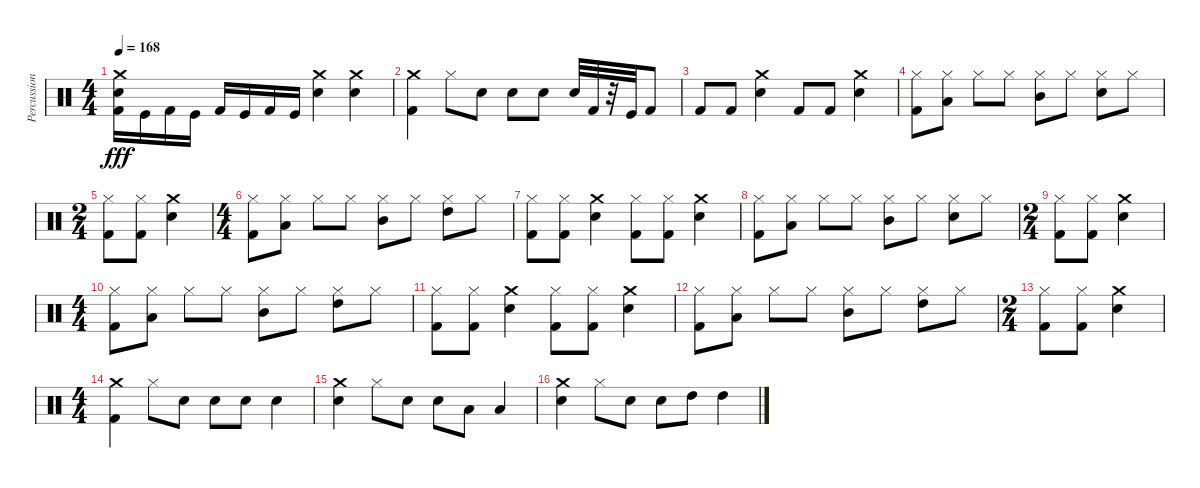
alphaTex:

\track ("Percussion" "Percussion") {instrument percussion}
\staff {score}
\articulation defaults
\ts (4 4)
\tempo 168
\clef neutral
\ks c
("Kick (hit) 2" "Snare (hit) 2" "Crash medium (hit)").16{dy fff} "Kick (hit)".16 "Kick (hit) 2".16 "Kick (hit)".16 "Kick (hit) 2".16 "Kick (hit)".16 "Kick (hit) 2".16 "Kick (hit)".16 ("Crash medium (hit)" "Snare (hit) 2").4 ("Snare (hit) 2" "Crash medium (hit)").4 |
("Kick (hit) 2" "Crash medium (hit)").4 "Hi-Hat (closed)".8 "Snare (hit) 2".8 "Snare (hit) 2".8 "Snare (hit) 2".8 "Snare (hit) 2".32 "Kick (hit) 2".32 r.32 "Kick (hit)".32 "Kick (hit) 2".8 |
"Kick (hit) 2".8 "Kick (hit) 2".8 ("Snare (hit) 2" "Crash medium (hit)").4 "Kick (hit) 2".8 "Kick (hit) 2".8 ("Crash medium (hit)" "Snare (hit) 2").4 |
("Hi-Hat (closed)" "Kick (hit) 2").8 ("Low Tom (hit)" "Hi-Hat (closed)").8 "Hi-Hat (closed)".8 "Hi-Hat (closed)".8 ("Mid Tom (hit)" "Hi-Hat (closed)").8 "Hi-Hat (closed)".8 ("Snare (hit) 2" "Hi-Hat (closed)").8 "Hi-Hat (closed)".8 |
\ts (2 4)
("Kick (hit) 2" "Hi-Hat (closed)").8 ("Kick (hit) 2" "Hi-Hat (closed)").8 ("Snare (hit) 2" "Crash medium (hit)").4 |
\ts (4 4)
("Hi-Hat (closed)" "Kick (hit) 2").8 ("Low Tom (hit)" "Hi-Hat (closed)").8 "Hi-Hat (closed)".8 "Hi-Hat (closed)".8 ("Mid Tom (hit)" "Hi-Hat (closed)").8 "Hi-Hat (closed)".8 ("Hi-Hat (closed)" "High Tom (hit)").8 "Hi-Hat (closed)".8 |
("Hi-Hat (closed)" "Kick (hit) 2").8 ("Hi-Hat (closed)" "Kick (hit) 2").8 ("Snare (hit) 2" "Crash medium (hit)").4 ("Kick (hit) 2" "Hi-Hat (closed)").8 ("Kick (hit) 2" "Hi-Hat (closed)").8 ("Crash medium (hit)" "Snare (hit) 2").4 |
("Hi-Hat (closed)" "Kick (hit) 2").8 ("Low Tom (hit)" "Hi-Hat (closed)").8 "Hi-Hat (closed)".8 "Hi-Hat (closed)".8 ("Mid Tom (hit)" "Hi-Hat (closed)").8 "Hi-Hat (closed)".8 ("Snare (hit) 2" "Hi-Hat (closed)").8 "Hi-Hat (closed)".8 |
\ts (2 4)
("Kick (hit) 2" "Hi-Hat (closed)").8 ("Kick (hit) 2" "Hi-Hat (closed)").8 ("Snare (hit) 2" "Crash medium (hit)").4 |
\ts (4 4)
("Hi-Hat (closed)" "Kick (hit) 2").8 ("Low Tom (hit)" "Hi-Hat (closed)").8 "Hi-Hat (closed)".8 "Hi-Hat (closed)".8 ("Mid Tom (hit)" "Hi-Hat (closed)").8 "Hi-Hat (closed)".8 ("Hi-Hat (closed)" "High Tom (hit)").8 "Hi-Hat (closed)".8 |
("Hi-Hat (closed)" "Kick (hit) 2").8 ("Hi-Hat (closed)" "Kick (hit) 2").8 ("Snare (hit) 2" "Crash medium (hit)").4 ("Kick (hit) 2" "Hi-Hat (closed)").8 ("Kick (hit) 2" "Hi-Hat (closed)").8 ("Crash medium (hit)" "Snare (hit) 2").4 |
("Hi-Hat (closed)" "Kick (hit) 2").8 ("Low Tom (hit)" "Hi-Hat (closed)").8 "Hi-Hat (closed)".8 "Hi-Hat (closed)".8 ("Mid Tom (hit)" "Hi-Hat (closed)").8 "Hi-Hat (closed)".8 ("Hi-Hat (closed)" "High Tom (hit)").8 "Hi-Hat (closed)".8 |
\ts (2 4)
("Hi-Hat (closed)" "Kick (hit) 2").8 ("Hi-Hat (closed)" "Kick (hit) 2").8 ("Crash medium (hit)" "Snare (hit) 2").4 |
\ts (4 4)
("Kick (hit) 2" "Crash medium (hit)").4 "Hi-Hat (closed)".8 "Snare (hit) 2".8 "Snare (hit) 2".8 "Snare (hit) 2".8 "Snare (hit) 2".4 |
("Snare (hit) 2" "Crash medium (hit)").4 "Hi-Hat (closed)".8 "Snare (hit) 2".8 "Snare (hit) 2".8 "Low Tom (hit)".8 "Low Tom (hit)".4 |
("Snare (hit) 2" "Crash medium (hit)").4 "Hi-Hat (closed)".8 "Snare (hit) 2".8 "Snare (hit) 2".8 "High Tom (hit)".8 "High Tom (hit)".4
